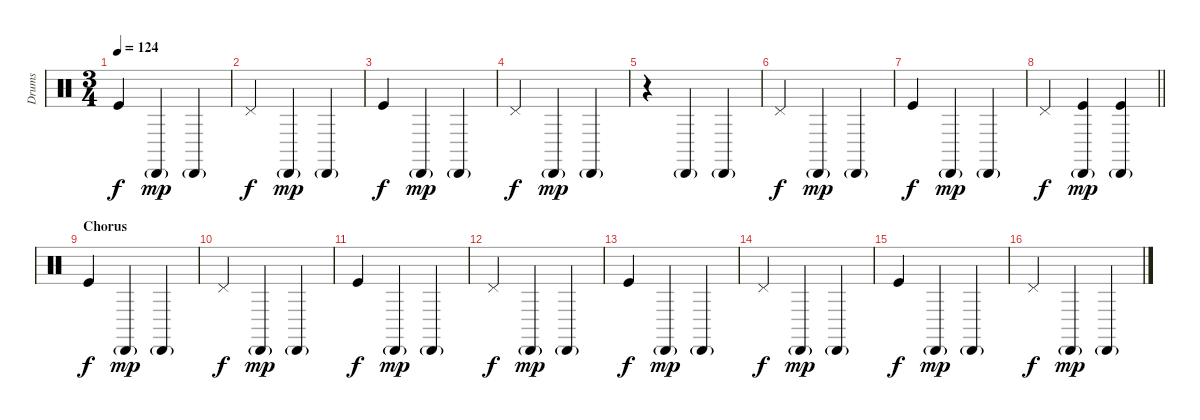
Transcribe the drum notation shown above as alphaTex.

\track ("Drums" "Drums") {instrument percussion}
\staff {score}
\articulation defaults
\ts (3 4)
\tempo 124
\clef neutral
\ks c "Kick (hit)".4{dy f} "Cabasa (hit)"{g}.4{dy mp} "Cabasa (hit)"{g}.4
|
"Pedal Hi-Hat (hit)".4{dy f} "Cabasa (hit)"{g}.4{dy mp} "Cabasa (hit)"{g}.4 |
"Kick (hit)".4{dy f} "Cabasa (hit)"{g}.4{dy mp} "Cabasa (hit)"{g}.4 |
"Pedal Hi-Hat (hit)".4{dy f} "Cabasa (hit)"{g}.4{dy mp} "Cabasa (hit)"{g}.4 |
r.4 "Cabasa (hit)"{g}.4 "Cabasa (hit)"{g}.4 |
"Pedal Hi-Hat (hit)".4{dy f} "Cabasa (hit)"{g}.4{dy mp} "Cabasa (hit)"{g}.4 |
"Kick (hit)".4{dy f} "Cabasa (hit)"{g}.4{dy mp} "Cabasa (hit)"{g}.4 |
\barLineRight lightlight "Pedal Hi-Hat (hit)".4{dy f}
("Cabasa (hit)"{g} "Kick (hit)").4{dy mp} ("Cabasa (hit)"{g} "Kick (hit)").4 |
\section ("" "Chorus")
"Kick (hit)".4{dy f} "Cabasa (hit)"{g}.4{dy mp} "Cabasa (hit)"{g}.4 |
"Pedal Hi-Hat (hit)".4{dy f} "Cabasa (hit)"{g}.4{dy mp} "Cabasa (hit)"{g}.4 |
"Kick (hit)".4{dy f} "Cabasa (hit)"{g}.4{dy mp} "Cabasa (hit)"{g}.4 |
"Pedal Hi-Hat (hit)".4{dy f} "Cabasa (hit)"{g}.4{dy mp} "Cabasa (hit)"{g}.4 |
"Kick (hit)".4{dy f} "Cabasa (hit)"{g}.4{dy mp} "Cabasa (hit)"{g}.4 |
"Pedal Hi-Hat (hit)".4{dy f} "Cabasa (hit)"{g}.4{dy mp} "Cabasa (hit)"{g}.4 |
"Kick (hit)".4{dy f} "Cabasa (hit)"{g}.4{dy mp} "Cabasa (hit)"{g}.4 |
"Pedal Hi-Hat (hit)".4{dy f} "Cabasa (hit)"{g}.4{dy mp} "Cabasa (hit)"{g}.4
